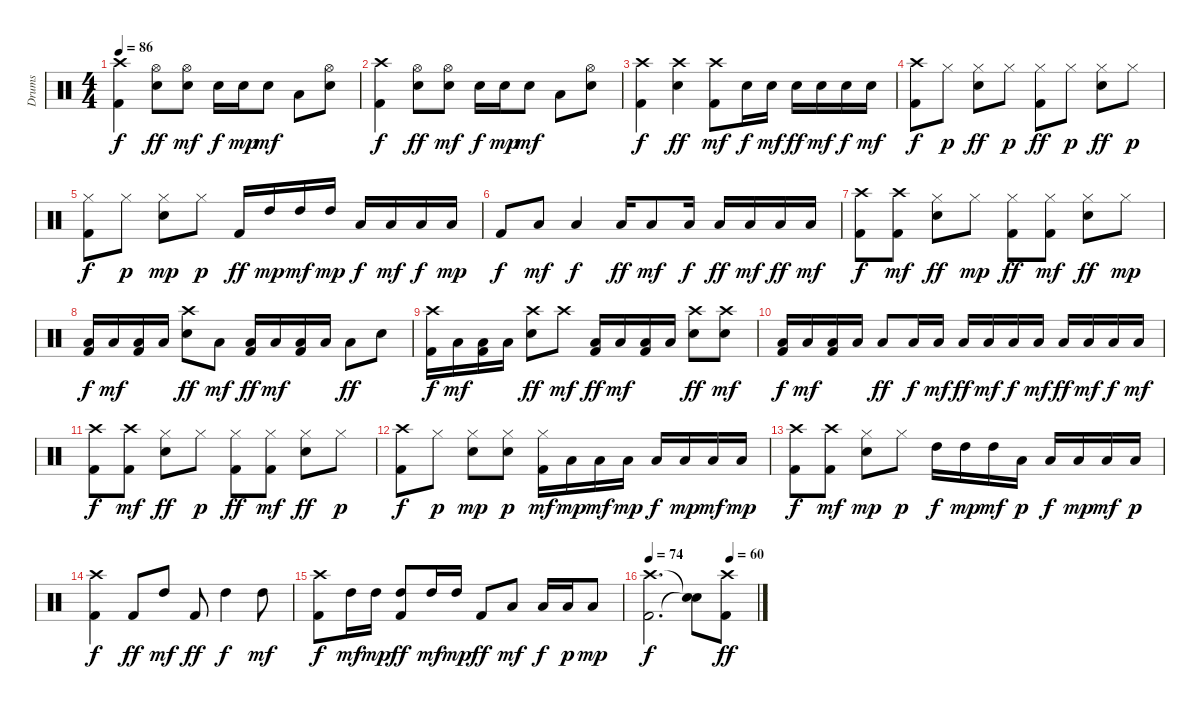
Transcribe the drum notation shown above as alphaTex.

\track ("Drums" "Drums") {instrument percussion}
\staff {score}
\articulation defaults
\ts (4 4)
\tempo 86
\clef neutral
\ks c
("Kick (hit) 2" "Crash high (hit)").4{dy f} ("Hi-Hat (open)" "Snare (hit) 2").8{dy ff} ("Hi-Hat (open)" "Snare (hit) 2").8{dy mf} "Snare (hit) 2".16{dy f} "Snare (hit) 2".16{dy mp} "Snare (hit) 2".8{dy mf} "Low Floor Tom (hit)".8 ("Hi-Hat (open)" "Snare (hit) 2").8 |
("Kick (hit) 2" "Crash high (hit)").4{dy f} ("Hi-Hat (open)" "Snare (hit) 2").8{dy ff} ("Hi-Hat (open)" "Snare (hit) 2").8{dy mf} "Snare (hit) 2".16{dy f} "Snare (hit) 2".16{dy mp} "Snare (hit) 2".8{dy mf} "Low Floor Tom (hit)".8 ("Hi-Hat (open)" "Snare (hit) 2").8 |
("Kick (hit) 2" "Crash high (hit)").4{dy f} ("Snare (hit) 2" "Crash high (hit)").4{dy ff} ("Kick (hit) 2" "Crash high (hit)").8{dy mf} "Snare (hit) 2".16{dy f} "Snare (hit) 2".16{dy mf} "Snare (hit) 2".16{dy ff} "Snare (hit) 2".16{dy mf} "Snare (hit) 2".16{dy f} "Snare (hit) 2".16{dy mf} |
("Kick (hit) 2" "Crash high (hit)").8{dy f} "Hi-Hat (closed)".8{dy p} ("Hi-Hat (closed)" "Snare (hit) 2").8{dy ff} "Hi-Hat (closed)".8{dy p} ("Hi-Hat (closed)" "Kick (hit) 2").8{dy ff} "Hi-Hat (closed)".8{dy p} ("Hi-Hat (closed)" "Snare (hit) 2").8{dy ff} "Hi-Hat (closed)".8{dy p} |
("Kick (hit) 2" "Hi-Hat (closed)").8{dy f} "Hi-Hat (closed)".8{dy p} ("Snare (hit) 2" "Hi-Hat (closed)").8{dy mp} "Hi-Hat (closed)".8{dy p} "Kick (hit) 2".16{dy ff} "High Tom (hit)".16{dy mp} "High Tom (hit)".16{dy mf} "High Tom (hit)".16{dy mp} "Low Tom (hit)".16{dy f} "Low Tom (hit)".16{dy mf} "Low Floor Tom (hit)".16{dy f} "Low Floor Tom (hit)".16{dy mp} |
"Kick (hit) 2".8{dy f} "Low Tom (hit)".8{dy mf} "Low Tom (hit)".4{dy f} "Low Floor Tom (hit)".16{dy ff} "Low Floor Tom (hit)".8{dy mf} "Low Floor Tom (hit)".16{dy f} "Low Floor Tom (hit)".16{dy ff} "Low Floor Tom (hit)".16{dy mf} "Low Floor Tom (hit)".16{dy ff} "Low Floor Tom (hit)".16{dy mf} |
("Kick (hit) 2" "Crash high (hit)").8{dy f} ("Kick (hit) 2" "Crash high (hit)").8{dy mf} ("Hi-Hat (closed)" "Snare (hit) 2").8{dy ff} "Hi-Hat (closed)".8{dy mp} ("Hi-Hat (closed)" "Kick (hit) 2").8{dy ff} ("Hi-Hat (closed)" "Kick (hit) 2").8{dy mf} ("Hi-Hat (closed)" "Snare (hit) 2").8{dy ff} "Hi-Hat (closed)".8{dy mp} |
("Kick (hit) 2" "Low Floor Tom (hit)").16{dy f} "Low Floor Tom (hit)".16{dy mf} ("Kick (hit) 2" "Low Floor Tom (hit)").16 "Low Floor Tom (hit)".16 ("Snare (hit) 2" "Crash high (hit)").8{dy ff} "Low Tom (hit)".8{dy mf} ("Kick (hit) 2" "Low Floor Tom (hit)").16{dy ff} "Low Floor Tom (hit)".16{dy mf} ("Kick (hit) 2" "Low Floor Tom (hit)").16 "Low Floor Tom (hit)".16 "Low Floor Tom (hit)".8{dy ff} "Snare (hit) 2".8 |
("Kick (hit) 2" "Crash high (hit)").16{dy f} "Low Floor Tom (hit)".16{dy mf} ("Kick (hit) 2" "Low Floor Tom (hit)").16 "Low Floor Tom (hit)".16 ("Snare (hit) 2" "Crash high (hit)").8{dy ff} "Crash high (hit)".8{dy mf} ("Kick (hit) 2" "Low Floor Tom (hit)").16{dy ff} "Low Floor Tom (hit)".16{dy mf} ("Kick (hit) 2" "Low Floor Tom (hit)").16 "Low Floor Tom (hit)".16 ("Snare (hit) 2" "Crash high (hit)").8{dy ff} ("Snare (hit) 2" "Crash high (hit)").8{dy mf} |
("Kick (hit) 2" "Low Floor Tom (hit)").16{dy f} "Low Floor Tom (hit)".16{dy mf} ("Kick (hit) 2" "Low Floor Tom (hit)").16 "Low Floor Tom (hit)".16 "Low Floor Tom (hit)".8{dy ff} "Low Floor Tom (hit)".16{dy f} "Low Floor Tom (hit)".16{dy mf} "Low Floor Tom (hit)".16{dy ff} "Low Floor Tom (hit)".16{dy mf} "Low Floor Tom (hit)".16{dy f} "Low Floor Tom (hit)".16{dy mf} "Low Floor Tom (hit)".16{dy ff} "Low Floor Tom (hit)".16{dy mf} "Low Floor Tom (hit)".16{dy f} "Low Floor Tom (hit)".16{dy mf} |
("Kick (hit) 2" "Crash high (hit)").8{dy f} ("Kick (hit) 2" "Crash high (hit)").8{dy mf} ("Hi-Hat (closed)" "Snare (hit) 2").8{dy ff} "Hi-Hat (closed)".8{dy p} ("Hi-Hat (closed)" "Kick (hit) 2").8{dy ff} ("Hi-Hat (closed)" "Kick (hit) 2").8{dy mf} ("Hi-Hat (closed)" "Snare (hit) 2").8{dy ff} "Hi-Hat (closed)".8{dy p} |
("Kick (hit) 2" "Crash high (hit)").8{dy f} "Hi-Hat (closed)".8{dy p} ("Snare (hit) 2" "Hi-Hat (closed)").8{dy mp} ("Snare (hit) 2" "Hi-Hat (closed)").8{dy p} ("Kick (hit) 2" "Hi-Hat (closed)").16{dy mf} "Low Tom (hit)".16{dy mp} "Low Tom (hit)".16{dy mf} "Low Tom (hit)".16{dy mp} "Low Tom (hit)".16{dy f} "Low Tom (hit)".16{dy mp} "Low Floor Tom (hit)".16{dy mf} "Low Floor Tom (hit)".16{dy mp} |
("Kick (hit) 2" "Crash high (hit)").8{dy f} ("Kick (hit) 2" "Crash high (hit)").8{dy mf} ("Snare (hit) 2" "Hi-Hat (closed)").8{dy mp} "Hi-Hat (closed)".8{dy p} "High Tom (hit)".16{dy f} "High Tom (hit)".16{dy mp} "High Tom (hit)".16{dy mf} "Low Tom (hit)".16{dy p} "Low Tom (hit)".16{dy f} "Low Tom (hit)".16{dy mp} "Low Floor Tom (hit)".16{dy mf} "Low Floor Tom (hit)".16{dy p} |
("Kick (hit) 2" "Crash high (hit)").4{dy f} "Kick (hit) 2".8{dy ff} "High Tom (hit)".8{dy mf} "Kick (hit) 2".8{dy ff} "High Tom (hit)".4{dy f} "High Tom (hit)".8{dy mf} |
("Kick (hit) 2" "Crash high (hit)").8{dy f} "High Tom (hit)".16{dy mf} "High Tom (hit)".16{dy mp} ("High Tom (hit)" "Kick (hit) 2").8{dy ff} "High Tom (hit)".16{dy mf} "High Tom (hit)".16{dy mp} "Kick (hit) 2".8{dy ff} "Low Tom (hit)".8{dy mf} "Low Tom (hit)".16{dy f} "Low Tom (hit)".16{dy p} "Low Tom (hit)".8{dy mp} |
\tempo 74
\tempo (60 0.75)
("Kick (hit) 2" "Crash high (hit)").2{d dy f} ("Snare (hit)"{t} "Snare (hit)"{t}).8 ("Kick (hit) 2" "Crash high (hit)").8{dy ff}
